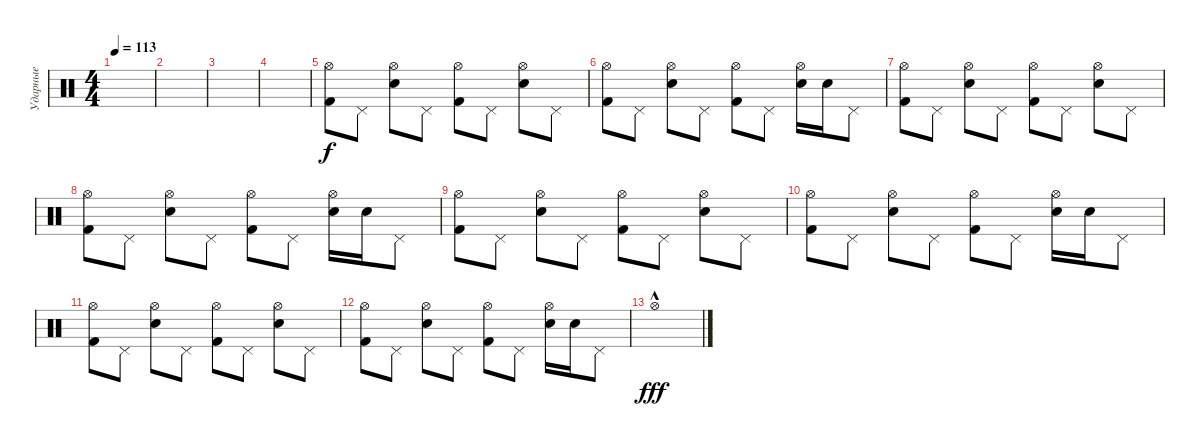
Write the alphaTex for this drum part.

\track ("Ударные" "Ударные") {instrument percussion}
\staff {score}
\articulation defaults
\ts (4 4)
\tempo 113
\clef neutral
\ks c
|
|
|
|
("Kick (hit) 2" "Hi-Hat (open)").8 "Pedal Hi-Hat (hit)".8 ("Electric Snare (hit)" "Hi-Hat (open)").8 "Pedal Hi-Hat (hit)".8 ("Kick (hit) 2" "Hi-Hat (open)").8 "Pedal Hi-Hat (hit)".8 ("Electric Snare (hit)" "Hi-Hat (open)").8 "Pedal Hi-Hat (hit)".8 |
("Kick (hit) 2" "Hi-Hat (open)").8 "Pedal Hi-Hat (hit)".8 ("Electric Snare (hit)" "Hi-Hat (open)").8 "Pedal Hi-Hat (hit)".8 ("Kick (hit) 2" "Hi-Hat (open)").8 "Pedal Hi-Hat (hit)".8 ("Electric Snare (hit)" "Hi-Hat (open)").16 "Electric Snare (hit)".16 "Pedal Hi-Hat (hit)".8 |
("Kick (hit) 2" "Hi-Hat (open)").8 "Pedal Hi-Hat (hit)".8 ("Electric Snare (hit)" "Hi-Hat (open)").8 "Pedal Hi-Hat (hit)".8 ("Kick (hit) 2" "Hi-Hat (open)").8 "Pedal Hi-Hat (hit)".8 ("Electric Snare (hit)" "Hi-Hat (open)").8 "Pedal Hi-Hat (hit)".8 |
("Kick (hit) 2" "Hi-Hat (open)").8 "Pedal Hi-Hat (hit)".8 ("Electric Snare (hit)" "Hi-Hat (open)").8 "Pedal Hi-Hat (hit)".8 ("Kick (hit) 2" "Hi-Hat (open)").8 "Pedal Hi-Hat (hit)".8 ("Electric Snare (hit)" "Hi-Hat (open)").16 "Electric Snare (hit)".16 "Pedal Hi-Hat (hit)".8 |
("Kick (hit) 2" "Hi-Hat (open)").8 "Pedal Hi-Hat (hit)".8 ("Electric Snare (hit)" "Hi-Hat (open)").8 "Pedal Hi-Hat (hit)".8 ("Kick (hit) 2" "Hi-Hat (open)").8 "Pedal Hi-Hat (hit)".8 ("Electric Snare (hit)" "Hi-Hat (open)").8 "Pedal Hi-Hat (hit)".8 |
("Kick (hit) 2" "Hi-Hat (open)").8 "Pedal Hi-Hat (hit)".8 ("Electric Snare (hit)" "Hi-Hat (open)").8 "Pedal Hi-Hat (hit)".8 ("Kick (hit) 2" "Hi-Hat (open)").8 "Pedal Hi-Hat (hit)".8 ("Electric Snare (hit)" "Hi-Hat (open)").16 "Electric Snare (hit)".16 "Pedal Hi-Hat (hit)".8 |
("Kick (hit) 2" "Hi-Hat (open)").8 "Pedal Hi-Hat (hit)".8 ("Electric Snare (hit)" "Hi-Hat (open)").8 "Pedal Hi-Hat (hit)".8 ("Kick (hit) 2" "Hi-Hat (open)").8 "Pedal Hi-Hat (hit)".8 ("Electric Snare (hit)" "Hi-Hat (open)").8 "Pedal Hi-Hat (hit)".8 |
("Kick (hit) 2" "Hi-Hat (open)").8 "Pedal Hi-Hat (hit)".8 ("Electric Snare (hit)" "Hi-Hat (open)").8 "Pedal Hi-Hat (hit)".8 ("Kick (hit) 2" "Hi-Hat (open)").8 "Pedal Hi-Hat (hit)".8 ("Electric Snare (hit)" "Hi-Hat (open)").16 "Electric Snare (hit)".16 "Pedal Hi-Hat (hit)".8 |
"Hi-Hat (open)"{hac}.1{dy fff}
